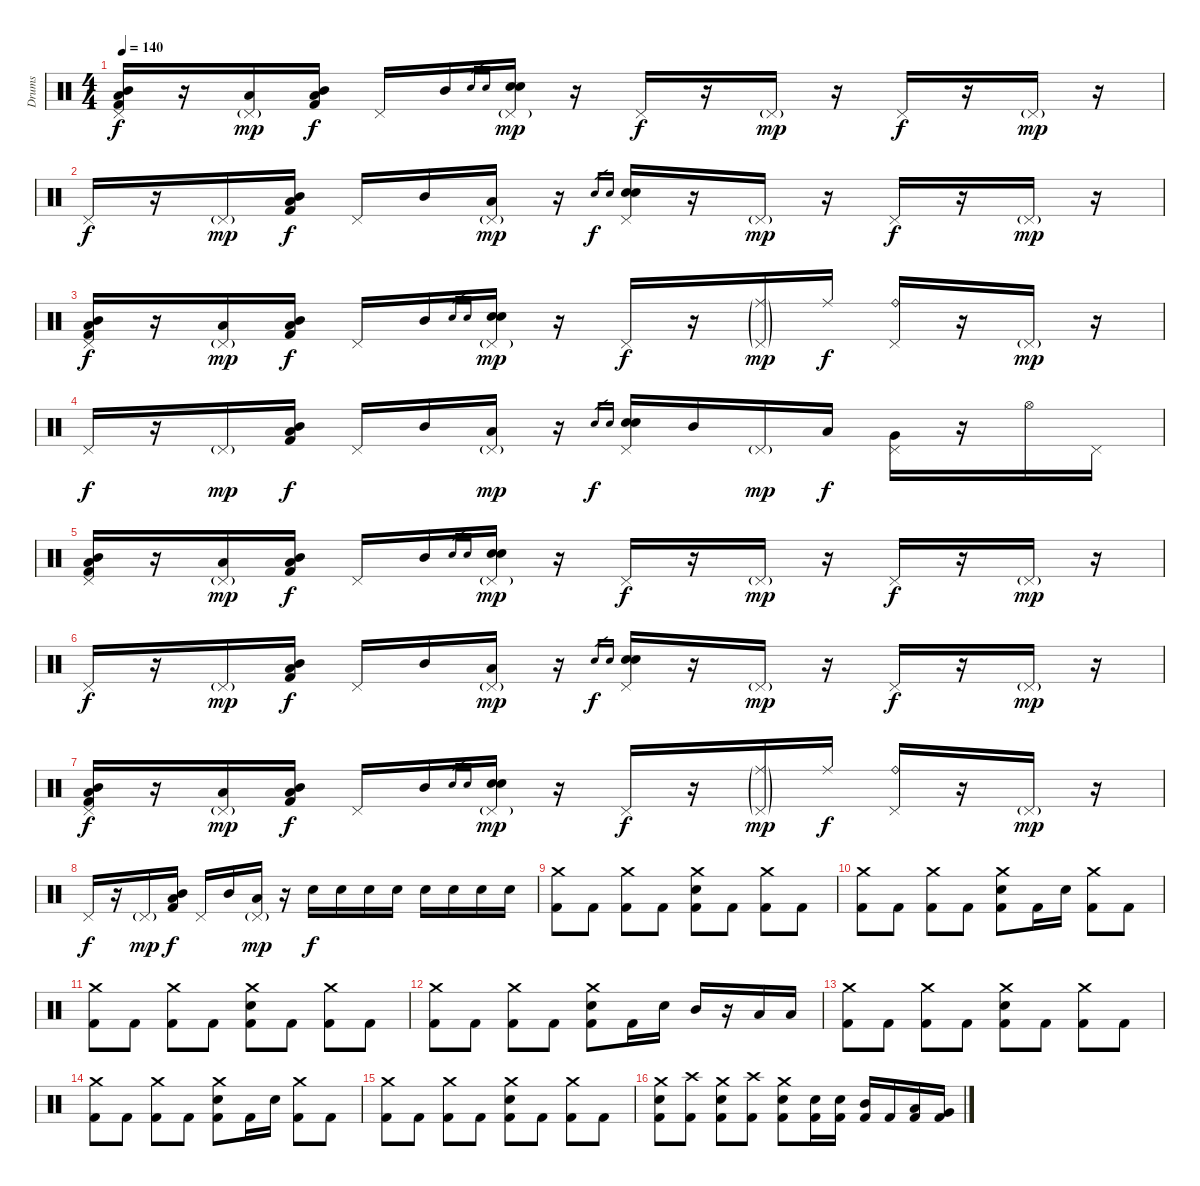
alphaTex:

\track ("Drums" "Drums") {instrument percussion}
\staff {score}
\articulation defaults
\ts (4 4)
\tempo 140
\clef neutral
\ks c
("Pedal Hi-Hat (hit)" "Low Tom (hit)" "Mid Tom (hit)" "Kick (hit) 2").16{dy f} r.16 ("Pedal Hi-Hat (hit)"{g} "Low Tom (hit)").16{dy mp} ("Low Tom (hit)" "Mid Tom (hit)" "Kick (hit) 2").16{dy f} "Pedal Hi-Hat (hit)".16 "Mid Tom (hit)".16 "Electric Snare (hit)".16{gr} "Electric Snare (hit)".16{gr} ("Pedal Hi-Hat (hit)"{g} "Electric Snare (hit)" "Electric Snare (hit)").16{dy mp} r.16 "Pedal Hi-Hat (hit)".16{dy f} r.16 "Pedal Hi-Hat (hit)"{g}.16{dy mp} r.16 "Pedal Hi-Hat (hit)".16{dy f} r.16 "Pedal Hi-Hat (hit)"{g}.16{dy mp} r.16 |
"Pedal Hi-Hat (hit)".16{dy f} r.16 "Pedal Hi-Hat (hit)"{g}.16{dy mp} ("Low Tom (hit)" "Mid Tom (hit)" "Kick (hit) 2").16{dy f} "Pedal Hi-Hat (hit)".16 "Mid Tom (hit)".16 ("Pedal Hi-Hat (hit)"{g} "Low Tom (hit)").16{dy mp} r.16 "Electric Snare (hit)".16{gr dy f} "Electric Snare (hit)".16{gr} ("Pedal Hi-Hat (hit)" "Electric Snare (hit)" "Electric Snare (hit)").16 r.16 "Pedal Hi-Hat (hit)"{g}.16{dy mp} r.16 "Pedal Hi-Hat (hit)".16{dy f} r.16 "Pedal Hi-Hat (hit)"{g}.16{dy mp} r.16 |
("Pedal Hi-Hat (hit)" "Low Tom (hit)" "Mid Tom (hit)" "Kick (hit) 2").16{dy f} r.16 ("Pedal Hi-Hat (hit)"{g} "Low Tom (hit)").16{dy mp} ("Low Tom (hit)" "Mid Tom (hit)" "Kick (hit) 2").16{dy f} "Pedal Hi-Hat (hit)".16 "Mid Tom (hit)".16 "Electric Snare (hit)".16{gr} "Electric Snare (hit)".16{gr} ("Pedal Hi-Hat (hit)"{g} "Electric Snare (hit)" "Electric Snare (hit)").16{dy mp} r.16 "Pedal Hi-Hat (hit)".16{dy f} r.16 ("Pedal Hi-Hat (hit)"{g} "Ride (middle)"{g}).16{dy mp} "Ride (middle)".16{dy f} ("Pedal Hi-Hat (hit)" "Ride (bell)").16 r.16 "Pedal Hi-Hat (hit)"{g}.16{dy mp} r.16 |
"Pedal Hi-Hat (hit)".16{dy f} r.16 "Pedal Hi-Hat (hit)"{g}.16{dy mp} ("Low Tom (hit)" "Mid Tom (hit)" "Kick (hit) 2").16{dy f} "Pedal Hi-Hat (hit)".16 "Mid Tom (hit)".16 ("Pedal Hi-Hat (hit)"{g} "Low Tom (hit)").16{dy mp} r.16 "Electric Snare (hit)".16{gr dy f} "Electric Snare (hit)".16{gr} ("Pedal Hi-Hat (hit)" "Electric Snare (hit)" "Electric Snare (hit)").16 "Mid Tom (hit)".16 "Pedal Hi-Hat (hit)"{g}.16{dy mp} "Low Tom (hit)".16{dy f} ("Pedal Hi-Hat (hit)" "Very Low Tom (hit)").16 r.16 "Hi-Hat (open)".16 "Pedal Hi-Hat (hit)".16 |
("Pedal Hi-Hat (hit)" "Low Tom (hit)" "Mid Tom (hit)" "Kick (hit) 2").16 r.16 ("Pedal Hi-Hat (hit)"{g} "Low Tom (hit)").16{dy mp} ("Low Tom (hit)" "Mid Tom (hit)" "Kick (hit) 2").16{dy f} "Pedal Hi-Hat (hit)".16 "Mid Tom (hit)".16 "Electric Snare (hit)".16{gr} "Electric Snare (hit)".16{gr} ("Pedal Hi-Hat (hit)"{g} "Electric Snare (hit)" "Electric Snare (hit)").16{dy mp} r.16 "Pedal Hi-Hat (hit)".16{dy f} r.16 "Pedal Hi-Hat (hit)"{g}.16{dy mp} r.16 "Pedal Hi-Hat (hit)".16{dy f} r.16 "Pedal Hi-Hat (hit)"{g}.16{dy mp} r.16 |
"Pedal Hi-Hat (hit)".16{dy f} r.16 "Pedal Hi-Hat (hit)"{g}.16{dy mp} ("Low Tom (hit)" "Mid Tom (hit)" "Kick (hit) 2").16{dy f} "Pedal Hi-Hat (hit)".16 "Mid Tom (hit)".16 ("Pedal Hi-Hat (hit)"{g} "Low Tom (hit)").16{dy mp} r.16 "Electric Snare (hit)".16{gr dy f} "Electric Snare (hit)".16{gr} ("Pedal Hi-Hat (hit)" "Electric Snare (hit)" "Electric Snare (hit)").16 r.16 "Pedal Hi-Hat (hit)"{g}.16{dy mp} r.16 "Pedal Hi-Hat (hit)".16{dy f} r.16 "Pedal Hi-Hat (hit)"{g}.16{dy mp} r.16 |
("Pedal Hi-Hat (hit)" "Low Tom (hit)" "Mid Tom (hit)" "Kick (hit) 2").16{dy f} r.16 ("Pedal Hi-Hat (hit)"{g} "Low Tom (hit)").16{dy mp} ("Low Tom (hit)" "Mid Tom (hit)" "Kick (hit) 2").16{dy f} "Pedal Hi-Hat (hit)".16 "Mid Tom (hit)".16 "Electric Snare (hit)".16{gr} "Electric Snare (hit)".16{gr} ("Pedal Hi-Hat (hit)"{g} "Electric Snare (hit)" "Electric Snare (hit)").16{dy mp} r.16 "Pedal Hi-Hat (hit)".16{dy f} r.16 ("Pedal Hi-Hat (hit)"{g} "Ride (middle)"{g}).16{dy mp} "Ride (middle)".16{dy f} ("Pedal Hi-Hat (hit)" "Ride (bell)").16 r.16 "Pedal Hi-Hat (hit)"{g}.16{dy mp} r.16 |
"Pedal Hi-Hat (hit)".16{dy f} r.16 "Pedal Hi-Hat (hit)"{g}.16{dy mp} ("Low Tom (hit)" "Mid Tom (hit)" "Kick (hit) 2").16{dy f} "Pedal Hi-Hat (hit)".16 "Mid Tom (hit)".16 ("Pedal Hi-Hat (hit)"{g} "Low Tom (hit)").16{dy mp} r.16 "Electric Snare (hit)".16{dy f} "Electric Snare (hit)".16 "Electric Snare (hit)".16 "Electric Snare (hit)".16 "Electric Snare (hit)".16 "Electric Snare (hit)".16 "Electric Snare (hit)".16 "Electric Snare (hit)".16 |
("Crash medium (hit)" "Kick (hit) 2").8 "Kick (hit) 2".8 ("Crash medium (hit)" "Kick (hit) 2").8 "Kick (hit) 2".8 ("Crash medium (hit)" "Electric Snare (hit)" "Kick (hit) 2").8 "Kick (hit) 2".8 ("Crash medium (hit)" "Kick (hit) 2").8 "Kick (hit) 2".8 |
("Crash medium (hit)" "Kick (hit) 2").8 "Kick (hit) 2".8 ("Crash medium (hit)" "Kick (hit) 2").8 "Kick (hit) 2".8 ("Crash medium (hit)" "Electric Snare (hit)" "Kick (hit) 2").8 "Kick (hit) 2".16 "Electric Snare (hit)".16 ("Crash medium (hit)" "Kick (hit) 2").8 "Kick (hit) 2".8 |
("Crash medium (hit)" "Kick (hit) 2").8 "Kick (hit) 2".8 ("Crash medium (hit)" "Kick (hit) 2").8 "Kick (hit) 2".8 ("Crash medium (hit)" "Electric Snare (hit)" "Kick (hit) 2").8 "Kick (hit) 2".8 ("Crash medium (hit)" "Kick (hit) 2").8 "Kick (hit) 2".8 |
("Crash medium (hit)" "Kick (hit) 2").8 "Kick (hit) 2".8 ("Crash medium (hit)" "Kick (hit) 2").8 "Kick (hit) 2".8 ("Crash medium (hit)" "Electric Snare (hit)" "Kick (hit) 2").8 "Kick (hit) 2".16 "Electric Snare (hit)".16 "Mid Tom (hit)".16 r.16 "Low Tom (hit)".16 "Low Floor Tom (hit)".16 |
("Crash medium (hit)" "Kick (hit) 2").8 "Kick (hit) 2".8 ("Crash medium (hit)" "Kick (hit) 2").8 "Kick (hit) 2".8 ("Crash medium (hit)" "Electric Snare (hit)" "Kick (hit) 2").8 "Kick (hit) 2".8 ("Crash medium (hit)" "Kick (hit) 2").8 "Kick (hit) 2".8 |
("Crash medium (hit)" "Kick (hit) 2").8 "Kick (hit) 2".8 ("Crash medium (hit)" "Kick (hit) 2").8 "Kick (hit) 2".8 ("Crash medium (hit)" "Electric Snare (hit)" "Kick (hit) 2").8 "Kick (hit) 2".16 "Electric Snare (hit)".16 ("Crash medium (hit)" "Kick (hit) 2").8 "Kick (hit) 2".8 |
("Crash medium (hit)" "Kick (hit) 2").8 "Kick (hit) 2".8 ("Crash medium (hit)" "Kick (hit) 2").8 "Kick (hit) 2".8 ("Crash medium (hit)" "Electric Snare (hit)" "Kick (hit) 2").8 "Kick (hit) 2".8 ("Crash medium (hit)" "Kick (hit) 2").8 "Kick (hit) 2".8 |
("Crash medium (hit)" "Electric Snare (hit)" "Kick (hit) 2").8 ("Crash high (hit)" "Kick (hit) 2").8 ("Crash medium (hit)" "Electric Snare (hit)" "Kick (hit) 2").8 ("Crash high (hit)" "Kick (hit) 2").8 ("Crash medium (hit)" "Electric Snare (hit)" "Kick (hit) 2").8 ("Electric Snare (hit)" "Kick (hit) 2").16 ("Electric Snare (hit)" "Kick (hit) 2").16 ("Mid Tom (hit)" "Kick (hit) 2").16 "Kick (hit) 2".16 ("Low Tom (hit)" "Kick (hit) 2").16 ("Very Low Tom (hit)" "Kick (hit) 2").16
